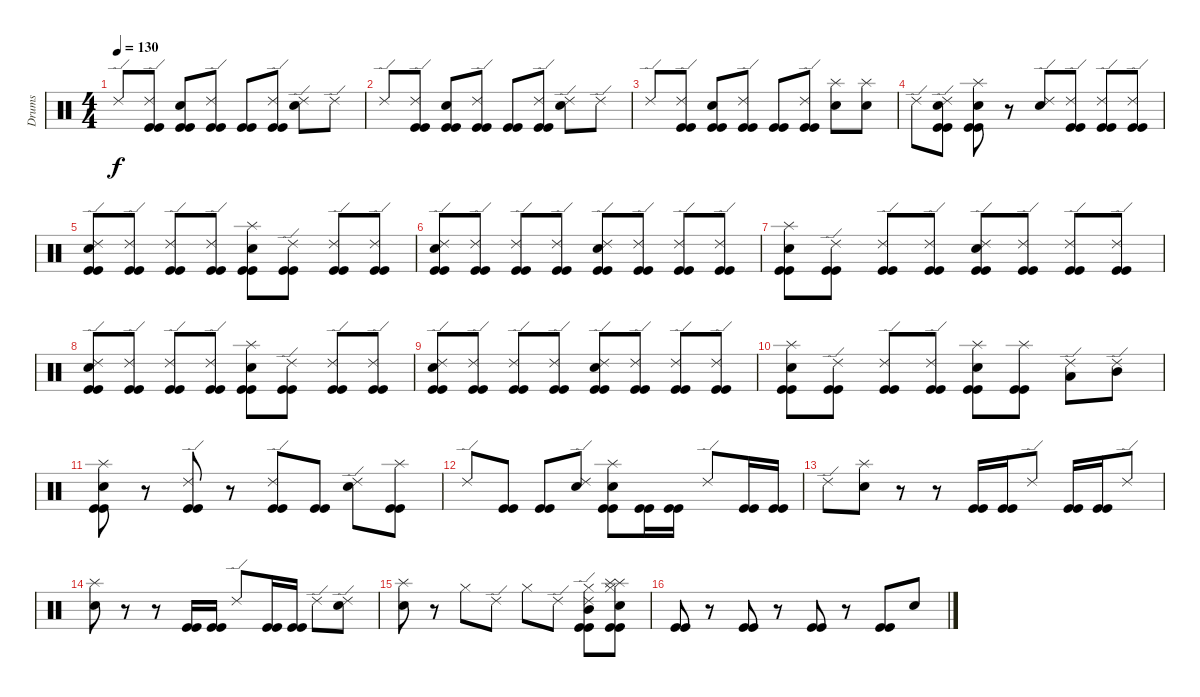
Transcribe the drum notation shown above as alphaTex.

\track ("Drums" "Drums") {instrument percussion}
\staff {score}
\articulation defaults
\ts (4 4)
\tempo 130
\clef neutral
\ks c "Ride (edge) 2".8{dy f}
("Ride (edge) 2" "Kick (hit)" "Kick (hit)").8 ("Snare (hit) 2" "Kick (hit)" "Kick (hit)").8 ("Ride (edge) 2" "Kick (hit)" "Kick (hit)").8 ("Kick (hit)" "Kick (hit)").8 ("Ride (edge) 2" "Kick (hit)" "Kick (hit)").8 ("Ride (edge) 2" "Snare (hit) 2").8 "Ride (edge) 2".8 |
"Ride (edge) 2".8 ("Ride (edge) 2" "Kick (hit)" "Kick (hit)").8 ("Snare (hit) 2" "Kick (hit)" "Kick (hit)").8 ("Ride (edge) 2" "Kick (hit)" "Kick (hit)").8 ("Kick (hit)" "Kick (hit)").8 ("Ride (edge) 2" "Kick (hit)" "Kick (hit)").8 ("Ride (edge) 2" "Snare (hit) 2").8 "Ride (edge) 2".8 |
"Ride (edge) 2".8 ("Ride (edge) 2" "Kick (hit)" "Kick (hit)").8 ("Snare (hit) 2" "Kick (hit)" "Kick (hit)").8 ("Ride (edge) 2" "Kick (hit)" "Kick (hit)").8 ("Kick (hit)" "Kick (hit)").8 ("Ride (edge) 2" "Kick (hit)" "Kick (hit)").8 ("Splash (hit)" "Snare (hit) 2").8 ("Splash (hit)" "Snare (hit) 2").8 |
"Ride (edge) 2".8 ("Ride (edge) 2" "Snare (hit) 2" "Kick (hit)" "Kick (hit)").8 ("Splash (hit)" "Snare (hit) 2" "Kick (hit)" "Kick (hit)").8 r.8 ("Ride (edge) 2" "Snare (hit) 2").8 ("Ride (edge) 2" "Kick (hit)" "Kick (hit)").8 ("Ride (edge) 2" "Kick (hit)" "Kick (hit)").8 ("Ride (edge) 2" "Kick (hit)" "Kick (hit)").8 |
("Ride (edge) 2" "Snare (hit) 2" "Kick (hit)" "Kick (hit)").8 ("Ride (edge) 2" "Kick (hit)" "Kick (hit)").8 ("Ride (edge) 2" "Kick (hit)" "Kick (hit)").8 ("Ride (edge) 2" "Kick (hit)" "Kick (hit)").8 ("Splash (hit)" "Snare (hit) 2" "Kick (hit)" "Kick (hit)").8 ("Ride (edge) 2" "Kick (hit)" "Kick (hit)").8 ("Ride (edge) 2" "Kick (hit)" "Kick (hit)").8 ("Ride (edge) 2" "Kick (hit)" "Kick (hit)").8 |
("Ride (edge) 2" "Snare (hit) 2" "Kick (hit)" "Kick (hit)").8 ("Ride (edge) 2" "Kick (hit)" "Kick (hit)").8 ("Ride (edge) 2" "Kick (hit)" "Kick (hit)").8 ("Ride (edge) 2" "Kick (hit)" "Kick (hit)").8 ("Ride (edge) 2" "Snare (hit) 2" "Kick (hit)" "Kick (hit)").8 ("Ride (edge) 2" "Kick (hit)" "Kick (hit)").8 ("Ride (edge) 2" "Kick (hit)" "Kick (hit)").8 ("Ride (edge) 2" "Kick (hit)" "Kick (hit)").8 |
("Splash (hit)" "Snare (hit) 2" "Kick (hit)" "Kick (hit)").8 ("Ride (edge) 2" "Kick (hit)" "Kick (hit)").8 ("Ride (edge) 2" "Kick (hit)" "Kick (hit)").8 ("Ride (edge) 2" "Kick (hit)" "Kick (hit)").8 ("Ride (edge) 2" "Snare (hit) 2" "Kick (hit)" "Kick (hit)").8 ("Ride (edge) 2" "Kick (hit)" "Kick (hit)").8 ("Ride (edge) 2" "Kick (hit)" "Kick (hit)").8 ("Ride (edge) 2" "Kick (hit)" "Kick (hit)").8 |
("Ride (edge) 2" "Snare (hit) 2" "Kick (hit)" "Kick (hit)").8 ("Ride (edge) 2" "Kick (hit)" "Kick (hit)").8 ("Ride (edge) 2" "Kick (hit)" "Kick (hit)").8 ("Ride (edge) 2" "Kick (hit)" "Kick (hit)").8 ("Splash (hit)" "Snare (hit) 2" "Kick (hit)" "Kick (hit)").8 ("Ride (edge) 2" "Kick (hit)" "Kick (hit)").8 ("Ride (edge) 2" "Kick (hit)" "Kick (hit)").8 ("Ride (edge) 2" "Kick (hit)" "Kick (hit)").8 |
("Ride (edge) 2" "Snare (hit) 2" "Kick (hit)" "Kick (hit)").8 ("Ride (edge) 2" "Kick (hit)" "Kick (hit)").8 ("Ride (edge) 2" "Kick (hit)" "Kick (hit)").8 ("Ride (edge) 2" "Kick (hit)" "Kick (hit)").8 ("Ride (edge) 2" "Snare (hit) 2" "Kick (hit)" "Kick (hit)").8 ("Ride (edge) 2" "Kick (hit)" "Kick (hit)").8 ("Ride (edge) 2" "Kick (hit)" "Kick (hit)").8 ("Ride (edge) 2" "Kick (hit)" "Kick (hit)").8 |
("Splash (hit)" "Snare (hit) 2" "Kick (hit)" "Kick (hit)").8 ("Ride (edge) 2" "Kick (hit)" "Kick (hit)").8 ("Ride (edge) 2" "Kick (hit)" "Kick (hit)").8 ("Ride (edge) 2" "Kick (hit)" "Kick (hit)").8 ("Splash (hit)" "Snare (hit) 2" "Kick (hit)" "Kick (hit)").8 ("Splash (hit)" "Kick (hit)" "Kick (hit)").8 ("Ride (edge) 2" "Low Tom (hit)").8 ("Ride (edge) 2" "Mid Tom (hit)").8 |
("Splash (hit)" "Snare (hit) 2" "Kick (hit)" "Kick (hit)").8 r.8 ("Ride (edge) 2" "Kick (hit)" "Kick (hit)").8 r.8 ("Ride (edge) 2" "Kick (hit)" "Kick (hit)").8 ("Kick (hit)" "Kick (hit)").8 ("Ride (edge) 2" "Snare (hit) 2").8 ("Splash (hit)" "Kick (hit)" "Kick (hit)").8 |
"Ride (edge) 2".8 ("Kick (hit)" "Kick (hit)").8 ("Kick (hit)" "Kick (hit)").8 ("Ride (edge) 2" "Snare (hit) 2").8 ("Splash (hit)" "Snare (hit) 2" "Kick (hit)" "Kick (hit)").8 ("Kick (hit)" "Kick (hit)").16 ("Kick (hit)" "Kick (hit)").16 "Ride (edge) 2".8 ("Kick (hit)" "Kick (hit)").16 ("Kick (hit)" "Kick (hit)").16 |
"Ride (edge) 2".8 ("Splash (hit)" "Snare (hit) 2").8 r.8 r.8 ("Kick (hit)" "Kick (hit)").16 ("Kick (hit)" "Kick (hit)").16 "Ride (edge) 2".8 ("Kick (hit)" "Kick (hit)").16 ("Kick (hit)" "Kick (hit)").16 "Ride (edge) 2".8 |
("Splash (hit)" "Snare (hit) 2").8 r.8 r.8 ("Kick (hit)" "Kick (hit)").16 ("Kick (hit)" "Kick (hit)").16 "Ride (edge) 2".8 ("Kick (hit)" "Kick (hit)").16 ("Kick (hit)" "Kick (hit)").16 "Ride (edge) 2".8 ("Ride (edge) 2" "Snare (hit) 2").8 |
("Splash (hit)" "Snare (hit) 2").8 r.8 "Hi-Hat (closed)".8 "Ride (edge) 2".8 "Hi-Hat (closed)".8 "Ride (edge) 2".8 ("Ride (edge) 2" "Mid Tom (hit)" "Kick (hit)" "Hi-Hat (closed)" "Kick (hit)").8 ("Splash (hit)" "Splash (hit)" "Snare (hit) 2" "Kick (hit)" "Hi-Hat (closed)" "Kick (hit)").8 |
("Kick (hit)" "Kick (hit)").8 r.8 ("Kick (hit)" "Kick (hit)").8 r.8 ("Kick (hit)" "Kick (hit)").8 r.8 ("Kick (hit)" "Kick (hit)").8 "Snare (hit) 2".8
